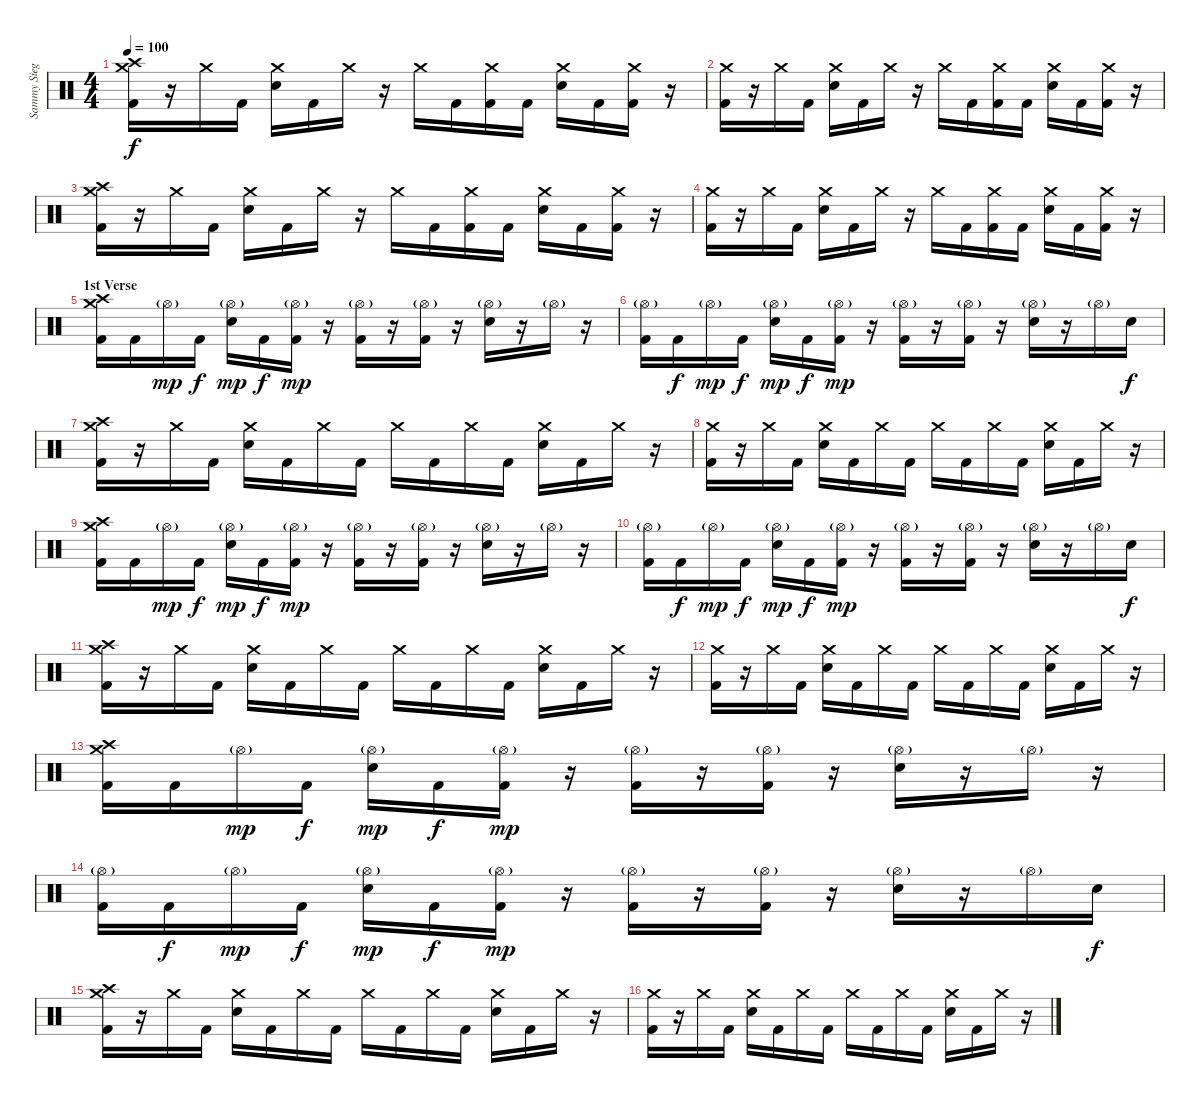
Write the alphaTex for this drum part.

\track ("Sammy Siegler" "Sammy Sieg") {instrument percussion}
\staff {score}
\articulation defaults
\ts (4 4)
\tempo 100
\clef neutral
\ks c
("Crash medium (hit)" "Crash high (hit)" "Kick (hit) 2").16{dy f} r.16 "Crash medium (hit)".16 "Kick (hit) 2".16 ("Crash medium (hit)" "Electric Snare (hit)").16 "Kick (hit) 2".16 "Crash medium (hit)".16 r.16 "Crash medium (hit)".16 "Kick (hit) 2".16 ("Crash medium (hit)" "Kick (hit) 2").16 "Kick (hit) 2".16 ("Crash medium (hit)" "Electric Snare (hit)").16 "Kick (hit) 2".16 ("Crash medium (hit)" "Kick (hit) 2").16 r.16 |
("Crash medium (hit)" "Kick (hit) 2").16 r.16 "Crash medium (hit)".16 "Kick (hit) 2".16 ("Crash medium (hit)" "Electric Snare (hit)").16 "Kick (hit) 2".16 "Crash medium (hit)".16 r.16 "Crash medium (hit)".16 "Kick (hit) 2".16 ("Crash medium (hit)" "Kick (hit) 2").16 "Kick (hit) 2".16 ("Crash medium (hit)" "Electric Snare (hit)").16 "Kick (hit) 2".16 ("Crash medium (hit)" "Kick (hit) 2").16 r.16 |
("Crash medium (hit)" "Crash high (hit)" "Kick (hit) 2").16 r.16 "Crash medium (hit)".16 "Kick (hit) 2".16 ("Crash medium (hit)" "Electric Snare (hit)").16 "Kick (hit) 2".16 "Crash medium (hit)".16 r.16 "Crash medium (hit)".16 "Kick (hit) 2".16 ("Crash medium (hit)" "Kick (hit) 2").16 "Kick (hit) 2".16 ("Crash medium (hit)" "Electric Snare (hit)").16 "Kick (hit) 2".16 ("Crash medium (hit)" "Kick (hit) 2").16 r.16 |
("Crash medium (hit)" "Kick (hit) 2").16 r.16 "Crash medium (hit)".16 "Kick (hit) 2".16 ("Crash medium (hit)" "Electric Snare (hit)").16 "Kick (hit) 2".16 "Crash medium (hit)".16 r.16 "Crash medium (hit)".16 "Kick (hit) 2".16 ("Crash medium (hit)" "Kick (hit) 2").16 "Kick (hit) 2".16 ("Crash medium (hit)" "Electric Snare (hit)").16 "Kick (hit) 2".16 ("Crash medium (hit)" "Kick (hit) 2").16 r.16 |
\section ("" "1st Verse")
("Crash medium (hit)" "Crash high (hit)" "Kick (hit) 2").16 "Kick (hit) 2".16 "Hi-Hat (open)"{g}.16{dy mp} "Kick (hit) 2".16{dy f} ("Hi-Hat (open)"{g} "Electric Snare (hit)").16{dy mp} "Kick (hit) 2".16{dy f} ("Hi-Hat (open)"{g} "Kick (hit) 2").16{dy mp} r.16 ("Hi-Hat (open)"{g} "Kick (hit) 2").16 r.16 ("Hi-Hat (open)"{g} "Kick (hit) 2").16 r.16 ("Hi-Hat (open)"{g} "Electric Snare (hit)").16 r.16 "Hi-Hat (open)"{g}.16 r.16 |
("Hi-Hat (open)"{g} "Kick (hit) 2").16 "Kick (hit) 2".16{dy f} "Hi-Hat (open)"{g}.16{dy mp} "Kick (hit) 2".16{dy f} ("Hi-Hat (open)"{g} "Electric Snare (hit)").16{dy mp} "Kick (hit) 2".16{dy f} ("Hi-Hat (open)"{g} "Kick (hit) 2").16{dy mp} r.16 ("Hi-Hat (open)"{g} "Kick (hit) 2").16 r.16 ("Hi-Hat (open)"{g} "Kick (hit) 2").16 r.16 ("Hi-Hat (open)"{g} "Electric Snare (hit)").16 r.16 "Hi-Hat (open)"{g}.16 "Electric Snare (hit)".16{dy f} |
("Crash medium (hit)" "Crash high (hit)" "Kick (hit) 2").16 r.16 "Crash medium (hit)".16 "Kick (hit) 2".16 ("Crash medium (hit)" "Electric Snare (hit)").16 "Kick (hit) 2".16 "Crash medium (hit)".16 "Kick (hit) 2".16 "Crash medium (hit)".16 "Kick (hit) 2".16 "Crash medium (hit)".16 "Kick (hit) 2".16 ("Crash medium (hit)" "Electric Snare (hit)").16 "Kick (hit) 2".16 "Crash medium (hit)".16 r.16 |
("Crash medium (hit)" "Kick (hit) 2").16 r.16 "Crash medium (hit)".16 "Kick (hit) 2".16 ("Crash medium (hit)" "Electric Snare (hit)").16 "Kick (hit) 2".16 "Crash medium (hit)".16 "Kick (hit) 2".16 "Crash medium (hit)".16 "Kick (hit) 2".16 "Crash medium (hit)".16 "Kick (hit) 2".16 ("Crash medium (hit)" "Electric Snare (hit)").16 "Kick (hit) 2".16 "Crash medium (hit)".16 r.16 |
("Crash medium (hit)" "Crash high (hit)" "Kick (hit) 2").16 "Kick (hit) 2".16 "Hi-Hat (open)"{g}.16{dy mp} "Kick (hit) 2".16{dy f} ("Hi-Hat (open)"{g} "Electric Snare (hit)").16{dy mp} "Kick (hit) 2".16{dy f} ("Hi-Hat (open)"{g} "Kick (hit) 2").16{dy mp} r.16 ("Hi-Hat (open)"{g} "Kick (hit) 2").16 r.16 ("Hi-Hat (open)"{g} "Kick (hit) 2").16 r.16 ("Hi-Hat (open)"{g} "Electric Snare (hit)").16 r.16 "Hi-Hat (open)"{g}.16 r.16 |
("Hi-Hat (open)"{g} "Kick (hit) 2").16 "Kick (hit) 2".16{dy f} "Hi-Hat (open)"{g}.16{dy mp} "Kick (hit) 2".16{dy f} ("Hi-Hat (open)"{g} "Electric Snare (hit)").16{dy mp} "Kick (hit) 2".16{dy f} ("Hi-Hat (open)"{g} "Kick (hit) 2").16{dy mp} r.16 ("Hi-Hat (open)"{g} "Kick (hit) 2").16 r.16 ("Hi-Hat (open)"{g} "Kick (hit) 2").16 r.16 ("Hi-Hat (open)"{g} "Electric Snare (hit)").16 r.16 "Hi-Hat (open)"{g}.16 "Electric Snare (hit)".16{dy f} |
("Crash medium (hit)" "Crash high (hit)" "Kick (hit) 2").16 r.16 "Crash medium (hit)".16 "Kick (hit) 2".16 ("Crash medium (hit)" "Electric Snare (hit)").16 "Kick (hit) 2".16 "Crash medium (hit)".16 "Kick (hit) 2".16 "Crash medium (hit)".16 "Kick (hit) 2".16 "Crash medium (hit)".16 "Kick (hit) 2".16 ("Crash medium (hit)" "Electric Snare (hit)").16 "Kick (hit) 2".16 "Crash medium (hit)".16 r.16 |
("Crash medium (hit)" "Kick (hit) 2").16 r.16 "Crash medium (hit)".16 "Kick (hit) 2".16 ("Crash medium (hit)" "Electric Snare (hit)").16 "Kick (hit) 2".16 "Crash medium (hit)".16 "Kick (hit) 2".16 "Crash medium (hit)".16 "Kick (hit) 2".16 "Crash medium (hit)".16 "Kick (hit) 2".16 ("Crash medium (hit)" "Electric Snare (hit)").16 "Kick (hit) 2".16 "Crash medium (hit)".16 r.16 |
("Crash medium (hit)" "Crash high (hit)" "Kick (hit) 2").16 "Kick (hit) 2".16 "Hi-Hat (open)"{g}.16{dy mp} "Kick (hit) 2".16{dy f} ("Hi-Hat (open)"{g} "Electric Snare (hit)").16{dy mp} "Kick (hit) 2".16{dy f} ("Hi-Hat (open)"{g} "Kick (hit) 2").16{dy mp} r.16 ("Hi-Hat (open)"{g} "Kick (hit) 2").16 r.16 ("Hi-Hat (open)"{g} "Kick (hit) 2").16 r.16 ("Hi-Hat (open)"{g} "Electric Snare (hit)").16 r.16 "Hi-Hat (open)"{g}.16 r.16 |
("Hi-Hat (open)"{g} "Kick (hit) 2").16 "Kick (hit) 2".16{dy f} "Hi-Hat (open)"{g}.16{dy mp} "Kick (hit) 2".16{dy f} ("Hi-Hat (open)"{g} "Electric Snare (hit)").16{dy mp} "Kick (hit) 2".16{dy f} ("Hi-Hat (open)"{g} "Kick (hit) 2").16{dy mp} r.16 ("Hi-Hat (open)"{g} "Kick (hit) 2").16 r.16 ("Hi-Hat (open)"{g} "Kick (hit) 2").16 r.16 ("Hi-Hat (open)"{g} "Electric Snare (hit)").16 r.16 "Hi-Hat (open)"{g}.16 "Electric Snare (hit)".16{dy f} |
("Crash medium (hit)" "Crash high (hit)" "Kick (hit) 2").16 r.16 "Crash medium (hit)".16 "Kick (hit) 2".16 ("Crash medium (hit)" "Electric Snare (hit)").16 "Kick (hit) 2".16 "Crash medium (hit)".16 "Kick (hit) 2".16 "Crash medium (hit)".16 "Kick (hit) 2".16 "Crash medium (hit)".16 "Kick (hit) 2".16 ("Crash medium (hit)" "Electric Snare (hit)").16 "Kick (hit) 2".16 "Crash medium (hit)".16 r.16 |
("Crash medium (hit)" "Kick (hit) 2").16 r.16 "Crash medium (hit)".16 "Kick (hit) 2".16 ("Crash medium (hit)" "Electric Snare (hit)").16 "Kick (hit) 2".16 "Crash medium (hit)".16 "Kick (hit) 2".16 "Crash medium (hit)".16 "Kick (hit) 2".16 "Crash medium (hit)".16 "Kick (hit) 2".16 ("Crash medium (hit)" "Electric Snare (hit)").16 "Kick (hit) 2".16 "Crash medium (hit)".16 r.16
